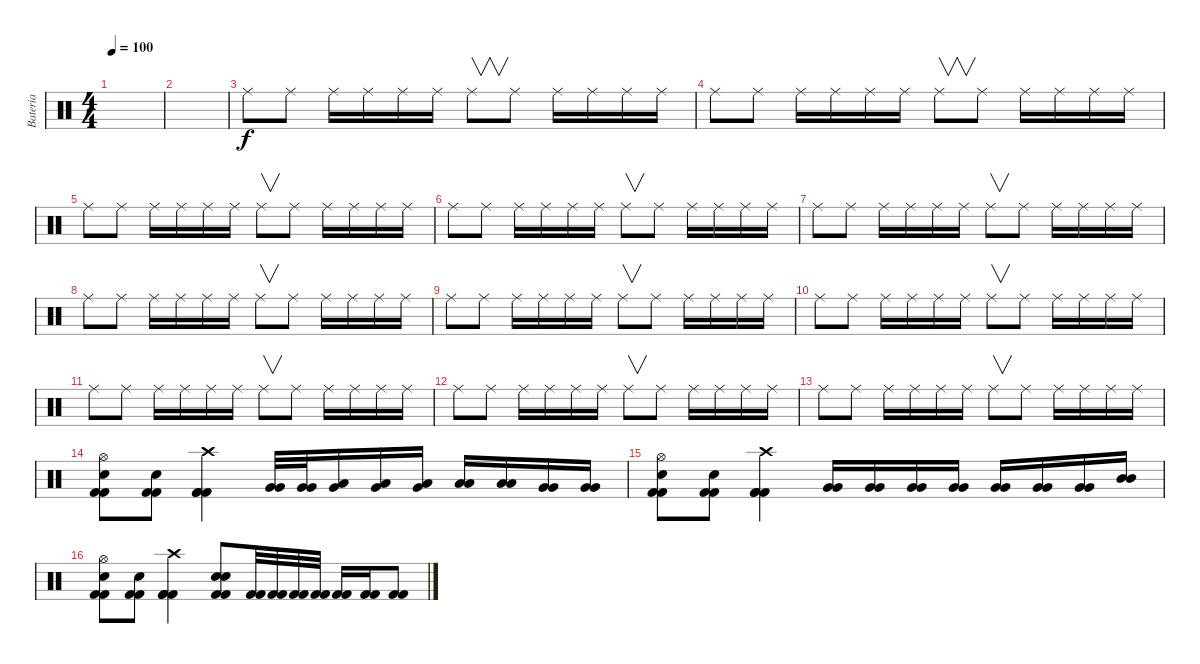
\track ("Bateria" "Bateria") {instrument percussion}
\staff {score}
\articulation defaults
\ts (4 4)
\tempo 100
\clef neutral
\ks c
|
|
"Ride (middle)".8 "Ride (middle)".8 "Ride (middle)".16 "Ride (middle)".16 "Ride (middle)".16 "Ride (middle)".16 "Ride (middle)".8{v} "Ride (middle)".8 "Ride (middle)".16 "Ride (middle)".16 "Ride (middle)".16 "Ride (middle)".16 |
"Ride (middle)".8 "Ride (middle)".8 "Ride (middle)".16 "Ride (middle)".16 "Ride (middle)".16 "Ride (middle)".16 "Ride (middle)".8{v} "Ride (middle)".8 "Ride (middle)".16 "Ride (middle)".16 "Ride (middle)".16 "Ride (middle)".16 |
"Ride (middle)".8 "Ride (middle)".8 "Ride (middle)".16 "Ride (middle)".16 "Ride (middle)".16 "Ride (middle)".16 "Ride (middle)".8{v} "Ride (middle)".8 "Ride (middle)".16 "Ride (middle)".16 "Ride (middle)".16 "Ride (middle)".16 |
"Ride (middle)".8 "Ride (middle)".8 "Ride (middle)".16 "Ride (middle)".16 "Ride (middle)".16 "Ride (middle)".16 "Ride (middle)".8{v} "Ride (middle)".8 "Ride (middle)".16 "Ride (middle)".16 "Ride (middle)".16 "Ride (middle)".16 |
"Ride (middle)".8 "Ride (middle)".8 "Ride (middle)".16 "Ride (middle)".16 "Ride (middle)".16 "Ride (middle)".16 "Ride (middle)".8{v} "Ride (middle)".8 "Ride (middle)".16 "Ride (middle)".16 "Ride (middle)".16 "Ride (middle)".16 |
"Ride (middle)".8 "Ride (middle)".8 "Ride (middle)".16 "Ride (middle)".16 "Ride (middle)".16 "Ride (middle)".16 "Ride (middle)".8{v} "Ride (middle)".8 "Ride (middle)".16 "Ride (middle)".16 "Ride (middle)".16 "Ride (middle)".16 |
"Ride (middle)".8 "Ride (middle)".8 "Ride (middle)".16 "Ride (middle)".16 "Ride (middle)".16 "Ride (middle)".16 "Ride (middle)".8{v} "Ride (middle)".8 "Ride (middle)".16 "Ride (middle)".16 "Ride (middle)".16 "Ride (middle)".16 |
"Ride (middle)".8 "Ride (middle)".8 "Ride (middle)".16 "Ride (middle)".16 "Ride (middle)".16 "Ride (middle)".16 "Ride (middle)".8{v} "Ride (middle)".8 "Ride (middle)".16 "Ride (middle)".16 "Ride (middle)".16 "Ride (middle)".16 |
"Ride (middle)".8 "Ride (middle)".8 "Ride (middle)".16 "Ride (middle)".16 "Ride (middle)".16 "Ride (middle)".16 "Ride (middle)".8{v} "Ride (middle)".8 "Ride (middle)".16 "Ride (middle)".16 "Ride (middle)".16 "Ride (middle)".16 |
"Ride (middle)".8 "Ride (middle)".8 "Ride (middle)".16 "Ride (middle)".16 "Ride (middle)".16 "Ride (middle)".16 "Ride (middle)".8{v} "Ride (middle)".8 "Ride (middle)".16 "Ride (middle)".16 "Ride (middle)".16 "Ride (middle)".16 |
"Ride (middle)".8 "Ride (middle)".8 "Ride (middle)".16 "Ride (middle)".16 "Ride (middle)".16 "Ride (middle)".16 "Ride (middle)".8{v} "Ride (middle)".8 "Ride (middle)".16 "Ride (middle)".16 "Ride (middle)".16 "Ride (middle)".16 |
("Hi-Hat (open)" "Snare (hit) 2" "Kick (hit) 2" "Kick (hit) 2").8 ("Snare (hit) 2" "Kick (hit) 2" "Kick (hit) 2").8 ("Crash high (hit)" "Kick (hit) 2" "Kick (hit) 2" "Kick (hit) 2").4 ("Very Low Tom (hit)" "Very Low Tom (hit)").32 ("Very Low Tom (hit)" "Very Low Tom (hit)").32 ("Very Low Tom (hit)" "Low Tom (hit)").16 ("Very Low Tom (hit)" "Low Tom (hit)").16 ("Very Low Tom (hit)" "Low Tom (hit)").16 ("Low Tom (hit)" "Low Tom (hit)").16 ("Low Tom (hit)" "Low Tom (hit)").16 ("Very Low Tom (hit)" "Very Low Tom (hit)").16 ("Very Low Tom (hit)" "Very Low Tom (hit)").16 |
("Hi-Hat (open)" "Snare (hit) 2" "Kick (hit) 2" "Kick (hit) 2").8 ("Snare (hit) 2" "Kick (hit) 2" "Kick (hit) 2").8 ("Crash high (hit)" "Kick (hit) 2" "Kick (hit) 2" "Kick (hit) 2").4 ("Very Low Tom (hit)" "Very Low Tom (hit)").16 ("Very Low Tom (hit)" "Very Low Tom (hit)").16 ("Very Low Tom (hit)" "Very Low Tom (hit)").16 ("Very Low Tom (hit)" "Very Low Tom (hit)").16 ("Very Low Tom (hit)" "Very Low Tom (hit)").16 ("Very Low Tom (hit)" "Very Low Tom (hit)").16 ("Very Low Tom (hit)" "Very Low Tom (hit)").16 ("Mid Tom (hit)" "Mid Tom (hit)").16 |
("Hi-Hat (open)" "Snare (hit) 2" "Kick (hit) 2" "Kick (hit) 2").8 ("Snare (hit) 2" "Kick (hit) 2" "Kick (hit) 2").8 ("Crash high (hit)" "Kick (hit) 2" "Kick (hit) 2" "Kick (hit) 2").4 ("Electric Snare (hit)" "Electric Snare (hit)" "Kick (hit) 2" "Kick (hit) 2").8 ("Kick (hit) 2" "Kick (hit) 2").32 ("Kick (hit) 2" "Kick (hit) 2").32 ("Kick (hit) 2" "Kick (hit) 2").32 ("Kick (hit) 2" "Kick (hit) 2").32 ("Kick (hit) 2" "Kick (hit) 2").16 ("Kick (hit) 2" "Kick (hit) 2").16 ("Kick (hit) 2" "Kick (hit) 2").8
